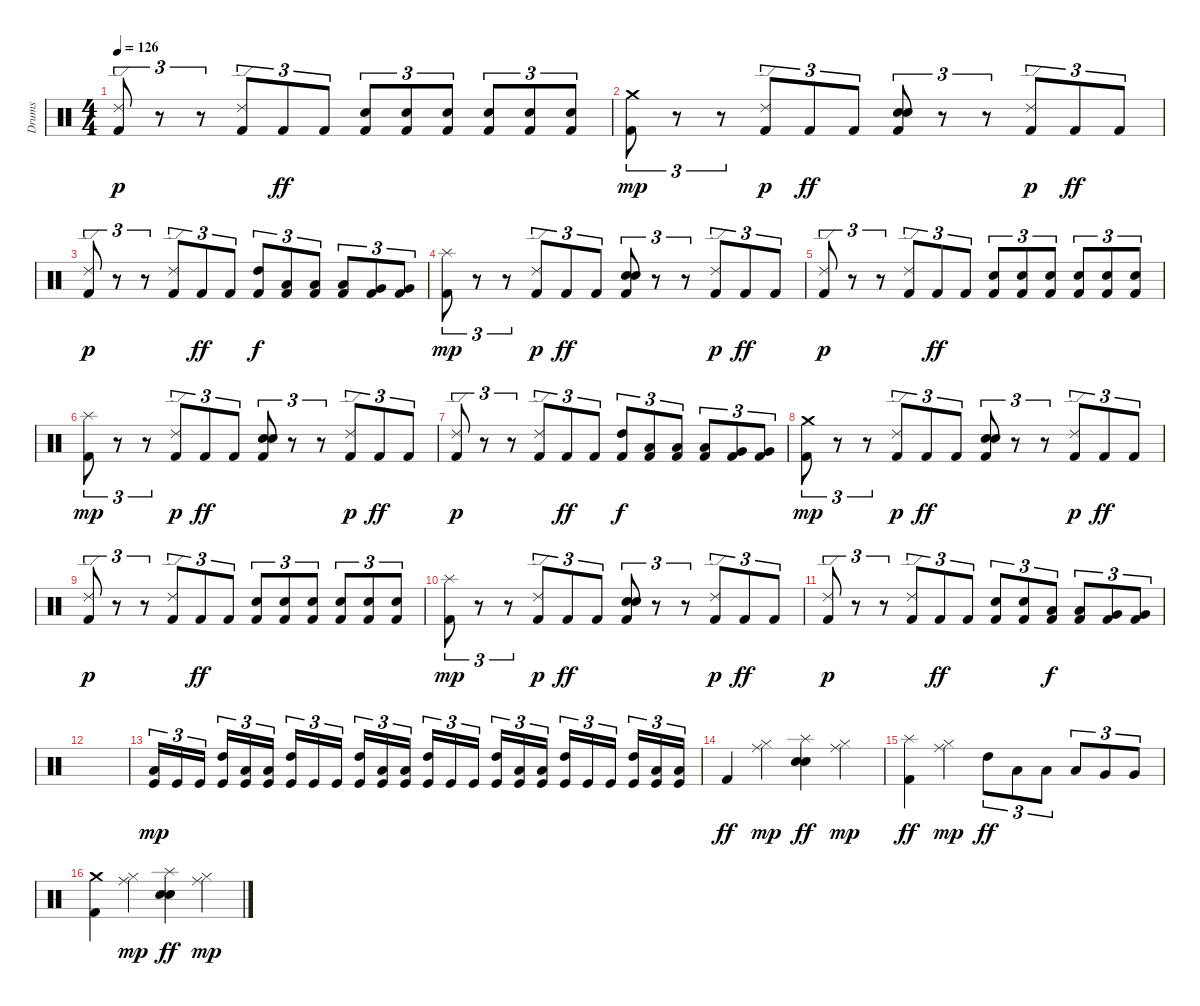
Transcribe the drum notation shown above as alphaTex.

\track ("Drums" "Drums") {instrument percussion}
\staff {score}
\articulation defaults
\ts (4 4)
\tempo 126
\clef neutral
\ks c
("Kick (hit) 2" "Ride (edge) 2").8{tu (3 2) dy p} r.8{tu (3 2)} r.8{tu (3 2)} ("Kick (hit) 2" "Ride (edge) 2").8{tu (3 2)} "Kick (hit) 2".8{tu (3 2) dy ff} "Kick (hit) 2".8{tu (3 2)} ("Kick (hit) 2" "Electric Snare (hit)").8{tu (3 2)} ("Kick (hit) 2" "Electric Snare (hit)").8{tu (3 2)} ("Kick (hit) 2" "Electric Snare (hit)").8{tu (3 2)} ("Kick (hit) 2" "Electric Snare (hit)").8{tu (3 2)} ("Kick (hit) 2" "Electric Snare (hit)").8{tu (3 2)} ("Kick (hit) 2" "Electric Snare (hit)").8{tu (3 2)} |
("Kick (hit) 2" "Crash medium (hit)").8{tu (3 2) dy mp} r.8{tu (3 2)} r.8{tu (3 2)} ("Kick (hit) 2" "Ride (edge) 2").8{tu (3 2) dy p} "Kick (hit) 2".8{tu (3 2) dy ff} "Kick (hit) 2".8{tu (3 2)} ("Kick (hit) 2" "Electric Snare (hit)" "Electric Snare (hit)").8{tu (3 2)} r.8{tu (3 2)} r.8{tu (3 2)} ("Kick (hit) 2" "Ride (edge) 2").8{tu (3 2) dy p} "Kick (hit) 2".8{tu (3 2) dy ff} "Kick (hit) 2".8{tu (3 2)} |
("Kick (hit) 2" "Ride (edge) 2").8{tu (3 2) dy p} r.8{tu (3 2)} r.8{tu (3 2)} ("Kick (hit) 2" "Ride (edge) 2").8{tu (3 2)} "Kick (hit) 2".8{tu (3 2) dy ff} "Kick (hit) 2".8{tu (3 2)} ("Kick (hit) 2" "High Tom (hit)").8{tu (3 2) dy f} ("Kick (hit) 2" "Low Tom (hit)").8{tu (3 2)} ("Kick (hit) 2" "Low Tom (hit)").8{tu (3 2)} ("Kick (hit) 2" "Low Tom (hit)").8{tu (3 2)} ("Kick (hit) 2" "Very Low Tom (hit)").8{tu (3 2)} ("Kick (hit) 2" "Very Low Tom (hit)").8{tu (3 2)} |
("Kick (hit) 2" "Splash (hit)").8{tu (3 2) dy mp} r.8{tu (3 2)} r.8{tu (3 2)} ("Kick (hit) 2" "Ride (edge) 2").8{tu (3 2) dy p} "Kick (hit) 2".8{tu (3 2) dy ff} "Kick (hit) 2".8{tu (3 2)} ("Kick (hit) 2" "Electric Snare (hit)" "Electric Snare (hit)").8{tu (3 2)} r.8{tu (3 2)} r.8{tu (3 2)} ("Kick (hit) 2" "Ride (edge) 2").8{tu (3 2) dy p} "Kick (hit) 2".8{tu (3 2) dy ff} "Kick (hit) 2".8{tu (3 2)} |
("Kick (hit) 2" "Ride (edge) 2").8{tu (3 2) dy p} r.8{tu (3 2)} r.8{tu (3 2)} ("Kick (hit) 2" "Ride (edge) 2").8{tu (3 2)} "Kick (hit) 2".8{tu (3 2) dy ff} "Kick (hit) 2".8{tu (3 2)} ("Kick (hit) 2" "Electric Snare (hit)").8{tu (3 2)} ("Kick (hit) 2" "Electric Snare (hit)").8{tu (3 2)} ("Kick (hit) 2" "Electric Snare (hit)").8{tu (3 2)} ("Kick (hit) 2" "Electric Snare (hit)").8{tu (3 2)} ("Kick (hit) 2" "Electric Snare (hit)").8{tu (3 2)} ("Kick (hit) 2" "Electric Snare (hit)").8{tu (3 2)} |
("Kick (hit) 2" "Splash (hit)").8{tu (3 2) dy mp} r.8{tu (3 2)} r.8{tu (3 2)} ("Kick (hit) 2" "Ride (edge) 2").8{tu (3 2) dy p} "Kick (hit) 2".8{tu (3 2) dy ff} "Kick (hit) 2".8{tu (3 2)} ("Kick (hit) 2" "Electric Snare (hit)" "Electric Snare (hit)").8{tu (3 2)} r.8{tu (3 2)} r.8{tu (3 2)} ("Kick (hit) 2" "Ride (edge) 2").8{tu (3 2) dy p} "Kick (hit) 2".8{tu (3 2) dy ff} "Kick (hit) 2".8{tu (3 2)} |
("Kick (hit) 2" "Ride (edge) 2").8{tu (3 2) dy p} r.8{tu (3 2)} r.8{tu (3 2)} ("Kick (hit) 2" "Ride (edge) 2").8{tu (3 2)} "Kick (hit) 2".8{tu (3 2) dy ff} "Kick (hit) 2".8{tu (3 2)} ("Kick (hit) 2" "High Tom (hit)").8{tu (3 2) dy f} ("Kick (hit) 2" "Low Tom (hit)").8{tu (3 2)} ("Kick (hit) 2" "Low Tom (hit)").8{tu (3 2)} ("Kick (hit) 2" "Low Tom (hit)").8{tu (3 2)} ("Kick (hit) 2" "Very Low Tom (hit)").8{tu (3 2)} ("Kick (hit) 2" "Very Low Tom (hit)").8{tu (3 2)} |
("Kick (hit) 2" "Crash medium (hit)").8{tu (3 2) dy mp} r.8{tu (3 2)} r.8{tu (3 2)} ("Kick (hit) 2" "Ride (edge) 2").8{tu (3 2) dy p} "Kick (hit) 2".8{tu (3 2) dy ff} "Kick (hit) 2".8{tu (3 2)} ("Kick (hit) 2" "Electric Snare (hit)" "Electric Snare (hit)").8{tu (3 2)} r.8{tu (3 2)} r.8{tu (3 2)} ("Kick (hit) 2" "Ride (edge) 2").8{tu (3 2) dy p} "Kick (hit) 2".8{tu (3 2) dy ff} "Kick (hit) 2".8{tu (3 2)} |
("Kick (hit) 2" "Ride (edge) 2").8{tu (3 2) dy p} r.8{tu (3 2)} r.8{tu (3 2)} ("Kick (hit) 2" "Ride (edge) 2").8{tu (3 2)} "Kick (hit) 2".8{tu (3 2) dy ff} "Kick (hit) 2".8{tu (3 2)} ("Kick (hit) 2" "Electric Snare (hit)").8{tu (3 2)} ("Kick (hit) 2" "Electric Snare (hit)").8{tu (3 2)} ("Kick (hit) 2" "Electric Snare (hit)").8{tu (3 2)} ("Kick (hit) 2" "Electric Snare (hit)").8{tu (3 2)} ("Kick (hit) 2" "Electric Snare (hit)").8{tu (3 2)} ("Kick (hit) 2" "Electric Snare (hit)").8{tu (3 2)} |
("Kick (hit) 2" "Splash (hit)").8{tu (3 2) dy mp} r.8{tu (3 2)} r.8{tu (3 2)} ("Kick (hit) 2" "Ride (edge) 2").8{tu (3 2) dy p} "Kick (hit) 2".8{tu (3 2) dy ff} "Kick (hit) 2".8{tu (3 2)} ("Kick (hit) 2" "Electric Snare (hit)" "Electric Snare (hit)").8{tu (3 2)} r.8{tu (3 2)} r.8{tu (3 2)} ("Kick (hit) 2" "Ride (edge) 2").8{tu (3 2) dy p} "Kick (hit) 2".8{tu (3 2) dy ff} "Kick (hit) 2".8{tu (3 2)} |
("Kick (hit) 2" "Ride (edge) 2").8{tu (3 2) dy p} r.8{tu (3 2)} r.8{tu (3 2)} ("Kick (hit) 2" "Ride (edge) 2").8{tu (3 2)} "Kick (hit) 2".8{tu (3 2) dy ff} "Kick (hit) 2".8{tu (3 2)} ("Kick (hit) 2" "Electric Snare (hit)").8{tu (3 2)} ("Kick (hit) 2" "Electric Snare (hit)").8{tu (3 2)} ("Kick (hit) 2" "Low Tom (hit)").8{tu (3 2) dy f} ("Kick (hit) 2" "Low Tom (hit)").8{tu (3 2)} ("Kick (hit) 2" "Very Low Tom (hit)").8{tu (3 2)} ("Kick (hit) 2" "Very Low Tom (hit)").8{tu (3 2)} |
|
("Low Tom (hit)" "Kick (hit)").16{tu (3 2) dy mp} "Kick (hit)".16{tu (3 2)} "Kick (hit)".16{tu (3 2) beam splitsecondary} ("High Tom (hit)" "Kick (hit)").16{tu (3 2)} ("Low Tom (hit)" "Kick (hit)").16{tu (3 2)} ("Low Tom (hit)" "Kick (hit)").16{tu (3 2)} ("High Tom (hit)" "Kick (hit)").16{tu (3 2)} "Kick (hit)".16{tu (3 2)} "Kick (hit)".16{tu (3 2) beam splitsecondary} ("High Tom (hit)" "Kick (hit)").16{tu (3 2)} ("Low Tom (hit)" "Kick (hit)").16{tu (3 2)} ("Low Tom (hit)" "Kick (hit)").16{tu (3 2)} ("High Tom (hit)" "Kick (hit)").16{tu (3 2)} "Kick (hit)".16{tu (3 2)} "Kick (hit)".16{tu (3 2) beam splitsecondary} ("High Tom (hit)" "Kick (hit)").16{tu (3 2)} ("Low Tom (hit)" "Kick (hit)").16{tu (3 2)} ("Low Tom (hit)" "Kick (hit)").16{tu (3 2)} ("High Tom (hit)" "Kick (hit)").16{tu (3 2)} "Kick (hit)".16{tu (3 2)} "Kick (hit)".16{tu (3 2) beam splitsecondary} ("High Tom (hit)" "Kick (hit)").16{tu (3 2)} ("Low Tom (hit)" "Kick (hit)").16{tu (3 2)} ("Low Tom (hit)" "Kick (hit)").16{tu (3 2)} |
"Kick (hit) 2".4{dy ff} ("Ride (middle)" "Hi-Hat (closed)").4{dy mp} ("Electric Snare (hit)" "Electric Snare (hit)" "Splash (hit)").4{dy ff} ("Ride (middle)" "Hi-Hat (closed)").4{dy mp} |
("Splash (hit)" "Kick (hit) 2").4{dy ff} ("Ride (middle)" "Hi-Hat (closed)").4{dy mp} "High Tom (hit)".8{tu (3 2) dy ff} "Low Tom (hit)".8{tu (3 2)} "Low Tom (hit)".8{tu (3 2)} "Low Tom (hit)".8{tu (3 2)} "Very Low Tom (hit)".8{tu (3 2)} "Very Low Tom (hit)".8{tu (3 2)} |
("Crash medium (hit)" "Kick (hit) 2").4 ("Ride (middle)" "Hi-Hat (closed)").4{dy mp} ("Electric Snare (hit)" "Electric Snare (hit)" "Splash (hit)").4{dy ff} ("Ride (middle)" "Hi-Hat (closed)").4{dy mp}
